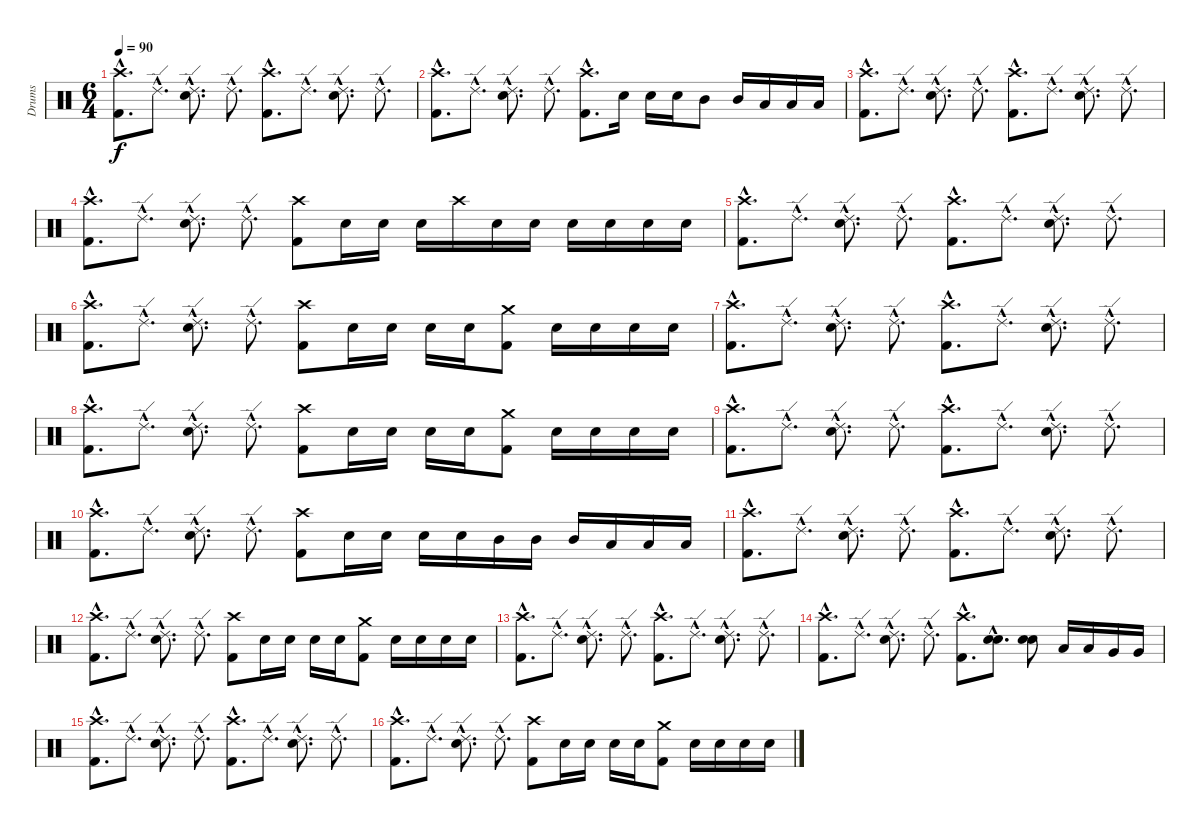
\track ("Drums" "Drums") {instrument percussion}
\staff {score}
\articulation defaults
\ts (6 4)
\tempo 90
\clef neutral
\ks c
("Crash high (hit)"{hac} "Kick (hit) 2"{hac}).8{d dy f} "Ride (edge) 2"{hac}.8{d} ("Ride (edge) 2"{hac} "Electric Snare (hit)"{hac}).8{d} "Ride (edge) 2"{hac}.8{d} ("Crash high (hit)"{hac} "Kick (hit) 2"{hac}).8{d} "Ride (edge) 2"{hac}.8{d} ("Ride (edge) 2"{hac} "Electric Snare (hit)"{hac}).8{d} "Ride (edge) 2"{hac}.8{d} |
("Crash high (hit)"{hac} "Kick (hit) 2"{hac}).8{d} "Ride (edge) 2"{hac}.8{d} ("Ride (edge) 2"{hac} "Electric Snare (hit)"{hac}).8{d} "Ride (edge) 2"{hac}.8{d} ("Crash high (hit)"{hac} "Kick (hit) 2"{hac}).8{d} "Electric Snare (hit)".16 "Electric Snare (hit)".16 "Electric Snare (hit)".16 "Mid Tom (hit)".8 "Mid Tom (hit)".16 "Low Tom (hit)".16 "Low Tom (hit)".16 "Low Tom (hit)".16 |
("Crash high (hit)"{hac} "Kick (hit) 2"{hac}).8{d} "Ride (edge) 2"{hac}.8{d} ("Ride (edge) 2"{hac} "Electric Snare (hit)"{hac}).8{d} "Ride (edge) 2"{hac}.8{d} ("Crash high (hit)"{hac} "Kick (hit) 2"{hac}).8{d} "Ride (edge) 2"{hac}.8{d} ("Ride (edge) 2"{hac} "Electric Snare (hit)"{hac}).8{d} "Ride (edge) 2"{hac}.8{d} |
("Crash high (hit)"{hac} "Kick (hit) 2"{hac}).8{d} "Ride (edge) 2"{hac}.8{d} ("Ride (edge) 2"{hac} "Electric Snare (hit)"{hac}).8{d} "Ride (edge) 2"{hac}.8{d} ("Crash high (hit)" "Kick (hit) 2").8 "Electric Snare (hit)".16 "Electric Snare (hit)".16 "Electric Snare (hit)".16 "Crash high (hit)".16 "Electric Snare (hit)".16 "Electric Snare (hit)".16 "Electric Snare (hit)".16 "Electric Snare (hit)".16 "Electric Snare (hit)".16 "Electric Snare (hit)".16 |
("Crash high (hit)"{hac} "Kick (hit) 2"{hac}).8{d} "Ride (edge) 2"{hac}.8{d} ("Ride (edge) 2"{hac} "Electric Snare (hit)"{hac}).8{d} "Ride (edge) 2"{hac}.8{d} ("Crash high (hit)"{hac} "Kick (hit) 2"{hac}).8{d} "Ride (edge) 2"{hac}.8{d} ("Ride (edge) 2"{hac} "Electric Snare (hit)"{hac}).8{d} "Ride (edge) 2"{hac}.8{d} |
("Crash high (hit)"{hac} "Kick (hit) 2"{hac}).8{d} "Ride (edge) 2"{hac}.8{d} ("Ride (edge) 2"{hac} "Electric Snare (hit)"{hac}).8{d} "Ride (edge) 2"{hac}.8{d} ("Crash high (hit)" "Kick (hit) 2").8 "Electric Snare (hit)".16 "Electric Snare (hit)".16 "Electric Snare (hit)".16 "Electric Snare (hit)".16 ("Crash medium (hit)" "Kick (hit) 2").8 "Electric Snare (hit)".16 "Electric Snare (hit)".16 "Electric Snare (hit)".16 "Electric Snare (hit)".16 |
("Crash high (hit)"{hac} "Kick (hit) 2"{hac}).8{d} "Ride (edge) 2"{hac}.8{d} ("Ride (edge) 2"{hac} "Electric Snare (hit)"{hac}).8{d} "Ride (edge) 2"{hac}.8{d} ("Crash high (hit)"{hac} "Kick (hit) 2"{hac}).8{d} "Ride (edge) 2"{hac}.8{d} ("Ride (edge) 2"{hac} "Electric Snare (hit)"{hac}).8{d} "Ride (edge) 2"{hac}.8{d} |
("Crash high (hit)"{hac} "Kick (hit) 2"{hac}).8{d} "Ride (edge) 2"{hac}.8{d} ("Ride (edge) 2"{hac} "Electric Snare (hit)"{hac}).8{d} "Ride (edge) 2"{hac}.8{d} ("Crash high (hit)" "Kick (hit) 2").8 "Electric Snare (hit)".16 "Electric Snare (hit)".16 "Electric Snare (hit)".16 "Electric Snare (hit)".16 ("Crash medium (hit)" "Kick (hit) 2").8 "Electric Snare (hit)".16 "Electric Snare (hit)".16 "Electric Snare (hit)".16 "Electric Snare (hit)".16 |
("Crash high (hit)"{hac} "Kick (hit) 2"{hac}).8{d} "Ride (edge) 2"{hac}.8{d} ("Ride (edge) 2"{hac} "Electric Snare (hit)"{hac}).8{d} "Ride (edge) 2"{hac}.8{d} ("Crash high (hit)"{hac} "Kick (hit) 2"{hac}).8{d} "Ride (edge) 2"{hac}.8{d} ("Ride (edge) 2"{hac} "Electric Snare (hit)"{hac}).8{d} "Ride (edge) 2"{hac}.8{d} |
("Crash high (hit)"{hac} "Kick (hit) 2"{hac}).8{d} "Ride (edge) 2"{hac}.8{d} ("Ride (edge) 2"{hac} "Electric Snare (hit)"{hac}).8{d} "Ride (edge) 2"{hac}.8{d} ("Crash high (hit)" "Kick (hit) 2").8 "Electric Snare (hit)".16 "Electric Snare (hit)".16 "Electric Snare (hit)".16 "Electric Snare (hit)".16 "Mid Tom (hit)".16 "Mid Tom (hit)".16 "Mid Tom (hit)".16 "Low Tom (hit)".16 "Low Tom (hit)".16 "Low Tom (hit)".16 |
("Crash high (hit)"{hac} "Kick (hit) 2"{hac}).8{d} "Ride (edge) 2"{hac}.8{d} ("Ride (edge) 2"{hac} "Electric Snare (hit)"{hac}).8{d} "Ride (edge) 2"{hac}.8{d} ("Crash high (hit)"{hac} "Kick (hit) 2"{hac}).8{d} "Ride (edge) 2"{hac}.8{d} ("Ride (edge) 2"{hac} "Electric Snare (hit)"{hac}).8{d} "Ride (edge) 2"{hac}.8{d} |
("Crash high (hit)"{hac} "Kick (hit) 2"{hac}).8{d} "Ride (edge) 2"{hac}.8{d} ("Ride (edge) 2"{hac} "Electric Snare (hit)"{hac}).8{d} "Ride (edge) 2"{hac}.8{d} ("Crash high (hit)" "Kick (hit) 2").8 "Electric Snare (hit)".16 "Electric Snare (hit)".16 "Electric Snare (hit)".16 "Electric Snare (hit)".16 ("Crash medium (hit)" "Kick (hit) 2").8 "Electric Snare (hit)".16 "Electric Snare (hit)".16 "Electric Snare (hit)".16 "Electric Snare (hit)".16 |
("Crash high (hit)"{hac} "Kick (hit) 2"{hac}).8{d} "Ride (edge) 2"{hac}.8{d} ("Ride (edge) 2"{hac} "Electric Snare (hit)"{hac}).8{d} "Ride (edge) 2"{hac}.8{d} ("Crash high (hit)"{hac} "Kick (hit) 2"{hac}).8{d} "Ride (edge) 2"{hac}.8{d} ("Ride (edge) 2"{hac} "Electric Snare (hit)"{hac}).8{d} "Ride (edge) 2"{hac}.8{d} |
("Crash high (hit)"{hac} "Kick (hit) 2"{hac}).8{d} "Ride (edge) 2"{hac}.8{d} ("Ride (edge) 2"{hac} "Electric Snare (hit)"{hac}).8{d} "Ride (edge) 2"{hac}.8{d} ("Crash high (hit)"{hac} "Kick (hit) 2"{hac}).8{d} ("Electric Snare (hit)"{hac} "Electric Snare (hit)"{hac}).8{d bu 60} ("Electric Snare (hit)" "Electric Snare (hit)").8{bu 60} "Low Tom (hit)".16 "Low Tom (hit)".16 "Very Low Tom (hit)".16 "Very Low Tom (hit)".16 |
("Crash high (hit)"{hac} "Kick (hit) 2"{hac}).8{d} "Ride (edge) 2"{hac}.8{d} ("Ride (edge) 2"{hac} "Electric Snare (hit)"{hac}).8{d} "Ride (edge) 2"{hac}.8{d} ("Crash high (hit)"{hac} "Kick (hit) 2"{hac}).8{d} "Ride (edge) 2"{hac}.8{d} ("Ride (edge) 2"{hac} "Electric Snare (hit)"{hac}).8{d} "Ride (edge) 2"{hac}.8{d} |
("Crash high (hit)"{hac} "Kick (hit) 2"{hac}).8{d} "Ride (edge) 2"{hac}.8{d} ("Ride (edge) 2"{hac} "Electric Snare (hit)"{hac}).8{d} "Ride (edge) 2"{hac}.8{d} ("Crash high (hit)" "Kick (hit) 2").8 "Electric Snare (hit)".16 "Electric Snare (hit)".16 "Electric Snare (hit)".16 "Electric Snare (hit)".16 ("Crash medium (hit)" "Kick (hit) 2").8 "Electric Snare (hit)".16 "Electric Snare (hit)".16 "Electric Snare (hit)".16 "Electric Snare (hit)".16
